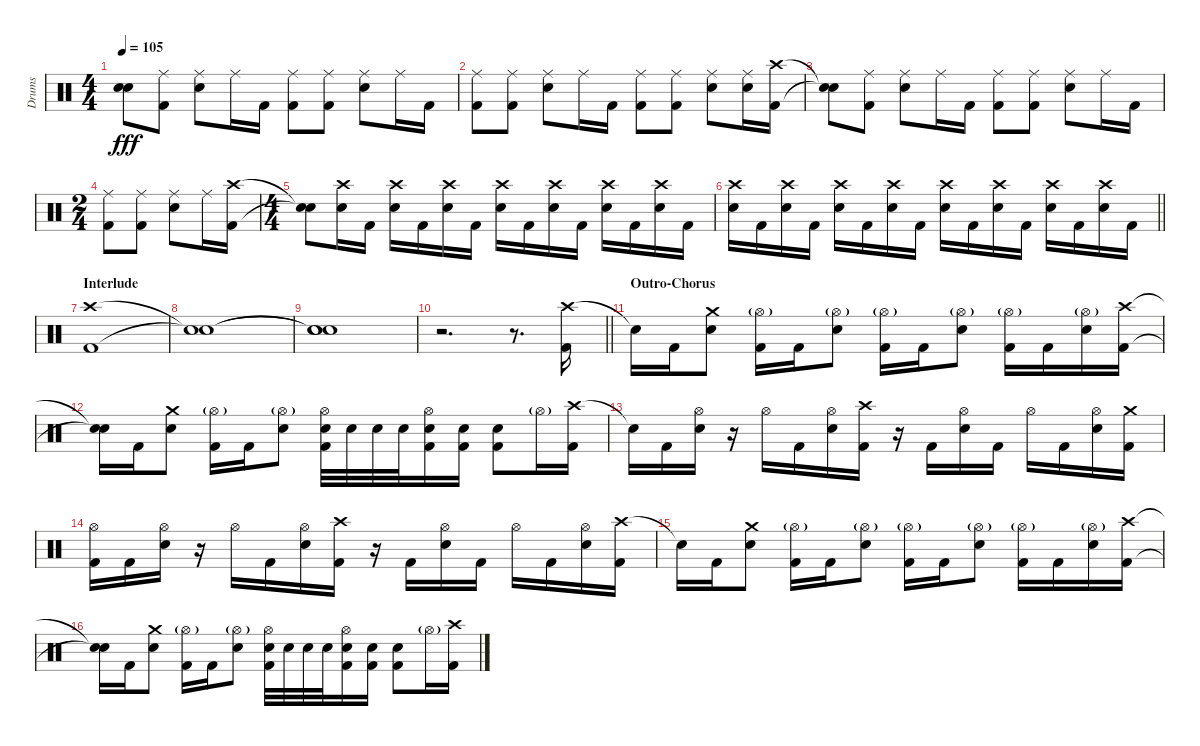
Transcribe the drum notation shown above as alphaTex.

\track ("Drums" "Drums") {instrument percussion}
\staff {score}
\articulation defaults
\ts (4 4)
\tempo 105
\clef neutral
\ks c
("Snare (hit)"{t} "Snare (hit)"{t}).8{dy fff} ("Ride (middle)" "Kick (hit) 2").8 ("Ride (middle)" "Electric Snare (hit)").8 "Ride (middle)".16 "Kick (hit) 2".16 ("Ride (middle)" "Kick (hit) 2").8 ("Ride (middle)" "Kick (hit) 2").8 ("Ride (middle)" "Electric Snare (hit)").8 "Ride (middle)".16 "Kick (hit) 2".16 |
("Ride (middle)" "Kick (hit) 2").8 ("Ride (middle)" "Kick (hit) 2").8 ("Ride (middle)" "Electric Snare (hit)").8 "Ride (middle)".16 "Kick (hit) 2".16 ("Ride (middle)" "Kick (hit) 2").8 ("Ride (middle)" "Kick (hit) 2").8 ("Ride (middle)" "Electric Snare (hit)").8 ("Ride (middle)" "Electric Snare (hit)").16 ("Crash high (hit)" "Kick (hit) 2").16 |
("Snare (hit)"{t} "Snare (hit)"{t}).8 ("Ride (middle)" "Kick (hit) 2").8 ("Ride (middle)" "Electric Snare (hit)").8 "Ride (middle)".16 "Kick (hit) 2".16 ("Ride (middle)" "Kick (hit) 2").8 ("Ride (middle)" "Kick (hit) 2").8 ("Ride (middle)" "Electric Snare (hit)").8 "Ride (middle)".16 "Kick (hit) 2".16 |
\ts (2 4)
("Ride (middle)" "Kick (hit) 2").8 ("Ride (middle)" "Kick (hit) 2").8 ("Ride (middle)" "Electric Snare (hit)").8 "Ride (middle)".16 ("Crash high (hit)" "Kick (hit) 2").16 |
\ts (4 4)
("Snare (hit)"{t} "Snare (hit)"{t}).8 ("Crash high (hit)" "Electric Snare (hit)").16 "Kick (hit) 2".16 ("Crash high (hit)" "Electric Snare (hit)").16 "Kick (hit) 2".16 ("Crash high (hit)" "Electric Snare (hit)").16 "Kick (hit) 2".16 ("Crash high (hit)" "Electric Snare (hit)").16 "Kick (hit) 2".16 ("Crash high (hit)" "Electric Snare (hit)").16 "Kick (hit) 2".16 ("Crash high (hit)" "Electric Snare (hit)").16 "Kick (hit) 2".16 ("Crash high (hit)" "Electric Snare (hit)").16 "Kick (hit) 2".16 |
\barLineRight lightlight
("Crash high (hit)" "Electric Snare (hit)").16 "Kick (hit) 2".16 ("Crash high (hit)" "Electric Snare (hit)").16 "Kick (hit) 2".16 ("Crash high (hit)" "Electric Snare (hit)").16 "Kick (hit) 2".16 ("Crash high (hit)" "Electric Snare (hit)").16 "Kick (hit) 2".16 ("Crash high (hit)" "Electric Snare (hit)").16 "Kick (hit) 2".16 ("Crash high (hit)" "Electric Snare (hit)").16 "Kick (hit) 2".16 ("Crash high (hit)" "Electric Snare (hit)").16 "Kick (hit) 2".16 ("Crash high (hit)" "Electric Snare (hit)").16 "Kick (hit) 2".16 |
\section ("" "Interlude")
("Crash high (hit)" "Kick (hit) 2").1 |
("Snare (hit)"{t} "Snare (hit)"{t}).1 |
("Snare (hit)"{t} "Snare (hit)"{t} "Snare (hit)").1 |
\barLineRight lightlight
r.2{d} r.8{d} ("Crash high (hit)" "Kick (hit) 2").16 |
\section ("" "Outro-Chorus")
"Snare (hit)"{t}.16 "Kick (hit) 2".16 ("Crash medium (hit)" "Electric Snare (hit)").8 ("Hi-Hat (open)"{g} "Kick (hit) 2").16 "Kick (hit) 2".16 ("Hi-Hat (open)"{g} "Electric Snare (hit)").8 ("Hi-Hat (open)"{g} "Kick (hit) 2").16 "Kick (hit) 2".16 ("Hi-Hat (open)"{g} "Electric Snare (hit)").8 ("Hi-Hat (open)"{g} "Kick (hit) 2").16 "Kick (hit) 2".16 ("Hi-Hat (open)"{g} "Electric Snare (hit)").16 ("Crash high (hit)" "Kick (hit) 2").16 |
("Snare (hit)"{t} "Snare (hit)"{t}).16 "Kick (hit) 2".16 ("Crash medium (hit)" "Electric Snare (hit)").8 ("Hi-Hat (open)"{g} "Kick (hit) 2").16 "Kick (hit) 2".16 ("Hi-Hat (open)"{g} "Electric Snare (hit)").8 ("Hi-Hat (open)" "Electric Snare (hit)" "Kick (hit) 2").32 "Electric Snare (hit)".32 "Electric Snare (hit)".32 "Electric Snare (hit)".32 ("Hi-Hat (open)" "Electric Snare (hit)" "Kick (hit) 2").16 ("Electric Snare (hit)" "Kick (hit) 2").16 ("Electric Snare (hit)" "Kick (hit) 2").8 "Hi-Hat (open)"{g}.16 ("Crash high (hit)" "Kick (hit) 2").16 |
"Snare (hit)"{t}.16 "Kick (hit) 2".16 ("Hi-Hat (open)" "Electric Snare (hit)").16 r.16 "Hi-Hat (open)".16 "Kick (hit) 2".16 ("Hi-Hat (open)" "Electric Snare (hit)").16 ("Crash high (hit)" "Kick (hit) 2").16 r.16 "Kick (hit) 2".16 ("Hi-Hat (open)" "Electric Snare (hit)").16 "Kick (hit) 2".16 "Hi-Hat (open)".16 "Kick (hit) 2".16 ("Hi-Hat (open)" "Electric Snare (hit)").16 ("Crash medium (hit)" "Kick (hit) 2").16 |
("Hi-Hat (open)" "Kick (hit) 2").16 "Kick (hit) 2".16 ("Hi-Hat (open)" "Electric Snare (hit)").16 r.16 "Hi-Hat (open)".16 "Kick (hit) 2".16 ("Hi-Hat (open)" "Electric Snare (hit)").16 ("Crash high (hit)" "Kick (hit) 2").16 r.16 "Kick (hit) 2".16 ("Hi-Hat (open)" "Electric Snare (hit)").16 "Kick (hit) 2".16 "Hi-Hat (open)".16 "Kick (hit) 2".16 ("Hi-Hat (open)" "Electric Snare (hit)").16 ("Crash high (hit)" "Kick (hit) 2").16 |
"Snare (hit)"{t}.16 "Kick (hit) 2".16 ("Crash medium (hit)" "Electric Snare (hit)").8 ("Hi-Hat (open)"{g} "Kick (hit) 2").16 "Kick (hit) 2".16 ("Hi-Hat (open)"{g} "Electric Snare (hit)").8 ("Hi-Hat (open)"{g} "Kick (hit) 2").16 "Kick (hit) 2".16 ("Hi-Hat (open)"{g} "Electric Snare (hit)").8 ("Hi-Hat (open)"{g} "Kick (hit) 2").16 "Kick (hit) 2".16 ("Hi-Hat (open)"{g} "Electric Snare (hit)").16 ("Crash high (hit)" "Kick (hit) 2").16 |
("Snare (hit)"{t} "Snare (hit)"{t}).16 "Kick (hit) 2".16 ("Crash medium (hit)" "Electric Snare (hit)").8 ("Hi-Hat (open)"{g} "Kick (hit) 2").16 "Kick (hit) 2".16 ("Hi-Hat (open)"{g} "Electric Snare (hit)").8 ("Hi-Hat (open)" "Electric Snare (hit)" "Kick (hit) 2").32 "Electric Snare (hit)".32 "Electric Snare (hit)".32 "Electric Snare (hit)".32 ("Hi-Hat (open)" "Electric Snare (hit)" "Kick (hit) 2").16 ("Electric Snare (hit)" "Kick (hit) 2").16 ("Electric Snare (hit)" "Kick (hit) 2").8 "Hi-Hat (open)"{g}.16 ("Crash high (hit)" "Kick (hit) 2").16
